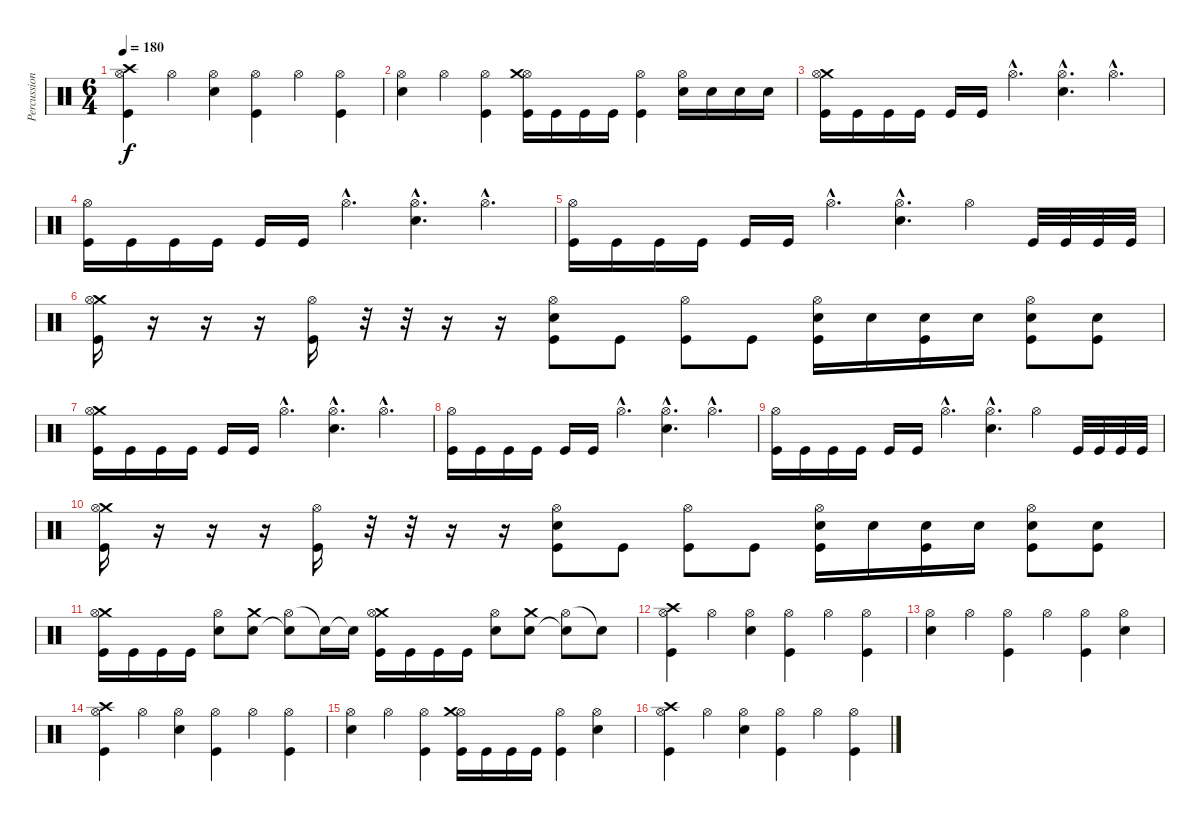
\track ("Percussion" "Percussion") {instrument percussion}
\staff {score}
\articulation defaults
\ts (6 4)
\tempo 180
\clef neutral
\ks c
("Crash high (hit)" "Hi-Hat (open)" "Kick (hit)").4{dy f} "Hi-Hat (open)".4 ("Hi-Hat (open)" "Electric Snare (hit)").4 ("Hi-Hat (open)" "Kick (hit)").4 "Hi-Hat (open)".4 ("Hi-Hat (open)" "Kick (hit)").4 |
("Hi-Hat (open)" "Electric Snare (hit)").4 "Hi-Hat (open)".4 ("Hi-Hat (open)" "Kick (hit)").4 ("Hi-Hat (open)" "Crash medium (hit)" "Kick (hit)").16 "Kick (hit)".16 "Kick (hit)".16 "Kick (hit)".16 ("Hi-Hat (open)" "Kick (hit)").4 ("Hi-Hat (open)" "Electric Snare (hit)").16 "Electric Snare (hit)".16 "Electric Snare (hit)".16 "Electric Snare (hit)".16 |
("Crash medium (hit)" "Hi-Hat (open)" "Kick (hit)").16 "Kick (hit)".16 "Kick (hit)".16 "Kick (hit)".16 "Kick (hit)".16 "Kick (hit)".16 "Hi-Hat (open)"{hac}.4{d} ("Electric Snare (hit)"{hac} "Hi-Hat (open)"{hac}).4{d} "Hi-Hat (open)"{hac}.4{d} |
("Hi-Hat (open)" "Kick (hit)").16 "Kick (hit)".16 "Kick (hit)".16 "Kick (hit)".16 "Kick (hit)".16 "Kick (hit)".16 "Hi-Hat (open)"{hac}.4{d} ("Electric Snare (hit)"{hac} "Hi-Hat (open)"{hac}).4{d} "Hi-Hat (open)"{hac}.4{d} |
("Hi-Hat (open)" "Kick (hit)").16 "Kick (hit)".16 "Kick (hit)".16 "Kick (hit)".16 "Kick (hit)".16 "Kick (hit)".16 "Hi-Hat (open)"{hac}.4{d} ("Electric Snare (hit)"{hac} "Hi-Hat (open)"{hac}).4{d} "Hi-Hat (open)".4 "Kick (hit)".32 "Kick (hit)".32 "Kick (hit)".32 "Kick (hit)".32 |
("Crash medium (hit)" "Hi-Hat (open)" "Kick (hit)").16 r.16 r.16 r.16 ("Hi-Hat (open)" "Kick (hit)").16 r.32 r.32 r.16 r.16 ("Electric Snare (hit)" "Hi-Hat (open)" "Kick (hit)").8 "Kick (hit)".8 ("Hi-Hat (open)" "Kick (hit)").8 "Kick (hit)".8 ("Electric Snare (hit)" "Hi-Hat (open)" "Kick (hit)").16 "Electric Snare (hit)".16 ("Electric Snare (hit)" "Kick (hit)").16 "Electric Snare (hit)".16 ("Electric Snare (hit)" "Hi-Hat (open)" "Kick (hit)").8 ("Electric Snare (hit)" "Kick (hit)").8 |
("Crash medium (hit)" "Hi-Hat (open)" "Kick (hit)").16 "Kick (hit)".16 "Kick (hit)".16 "Kick (hit)".16 "Kick (hit)".16 "Kick (hit)".16 "Hi-Hat (open)"{hac}.4{d} ("Electric Snare (hit)"{hac} "Hi-Hat (open)"{hac}).4{d} "Hi-Hat (open)"{hac}.4{d} |
("Hi-Hat (open)" "Kick (hit)").16 "Kick (hit)".16 "Kick (hit)".16 "Kick (hit)".16 "Kick (hit)".16 "Kick (hit)".16 "Hi-Hat (open)"{hac}.4{d} ("Electric Snare (hit)"{hac} "Hi-Hat (open)"{hac}).4{d} "Hi-Hat (open)"{hac}.4{d} |
("Hi-Hat (open)" "Kick (hit)").16 "Kick (hit)".16 "Kick (hit)".16 "Kick (hit)".16 "Kick (hit)".16 "Kick (hit)".16 "Hi-Hat (open)"{hac}.4{d} ("Electric Snare (hit)"{hac} "Hi-Hat (open)"{hac}).4{d} "Hi-Hat (open)".4 "Kick (hit)".32 "Kick (hit)".32 "Kick (hit)".32 "Kick (hit)".32 |
("Crash medium (hit)" "Hi-Hat (open)" "Kick (hit)").16 r.16 r.16 r.16 ("Hi-Hat (open)" "Kick (hit)").16 r.32 r.32 r.16 r.16 ("Electric Snare (hit)" "Hi-Hat (open)" "Kick (hit)").8 "Kick (hit)".8 ("Hi-Hat (open)" "Kick (hit)").8 "Kick (hit)".8 ("Electric Snare (hit)" "Hi-Hat (open)" "Kick (hit)").16 "Electric Snare (hit)".16 ("Electric Snare (hit)" "Kick (hit)").16 "Electric Snare (hit)".16 ("Electric Snare (hit)" "Hi-Hat (open)" "Kick (hit)").8 ("Electric Snare (hit)" "Kick (hit)").8 |
("Crash medium (hit)" "Hi-Hat (open)" "Kick (hit)").16 "Kick (hit)".16 "Kick (hit)".16 "Kick (hit)".16 ("Hi-Hat (open)" "Electric Snare (hit)").8 ("Crash medium (hit)" "Electric Snare (hit)").8 ("Hi-Hat (open)" "Snare (hit)"{t}).8 "Snare (hit)"{t}.16 "Snare (hit)"{t}.16 ("Crash medium (hit)" "Hi-Hat (open)" "Kick (hit)").16 "Kick (hit)".16 "Kick (hit)".16 "Kick (hit)".16 ("Hi-Hat (open)" "Electric Snare (hit)").8 ("Crash medium (hit)" "Electric Snare (hit)").8 ("Hi-Hat (open)" "Snare (hit)"{t}).8 "Snare (hit)"{t}.8 |
("Crash high (hit)" "Hi-Hat (open)" "Kick (hit)").4 "Hi-Hat (open)".4 ("Hi-Hat (open)" "Electric Snare (hit)").4 ("Hi-Hat (open)" "Kick (hit)").4 "Hi-Hat (open)".4 ("Hi-Hat (open)" "Kick (hit)").4 |
("Hi-Hat (open)" "Electric Snare (hit)").4 "Hi-Hat (open)".4 ("Hi-Hat (open)" "Kick (hit)").4 "Hi-Hat (open)".4 ("Hi-Hat (open)" "Kick (hit)").4 ("Hi-Hat (open)" "Electric Snare (hit)").4 |
("Crash high (hit)" "Hi-Hat (open)" "Kick (hit)").4 "Hi-Hat (open)".4 ("Hi-Hat (open)" "Electric Snare (hit)").4 ("Hi-Hat (open)" "Kick (hit)").4 "Hi-Hat (open)".4 ("Hi-Hat (open)" "Kick (hit)").4 |
("Hi-Hat (open)" "Electric Snare (hit)").4 "Hi-Hat (open)".4 ("Hi-Hat (open)" "Kick (hit)").4 ("Hi-Hat (open)" "Crash medium (hit)" "Kick (hit)").16 "Kick (hit)".16 "Kick (hit)".16 "Kick (hit)".16 ("Hi-Hat (open)" "Kick (hit)").4 ("Hi-Hat (open)" "Electric Snare (hit)").4 |
("Crash high (hit)" "Hi-Hat (open)" "Kick (hit)").4 "Hi-Hat (open)".4 ("Hi-Hat (open)" "Electric Snare (hit)").4 ("Hi-Hat (open)" "Kick (hit)").4 "Hi-Hat (open)".4 ("Hi-Hat (open)" "Kick (hit)").4
